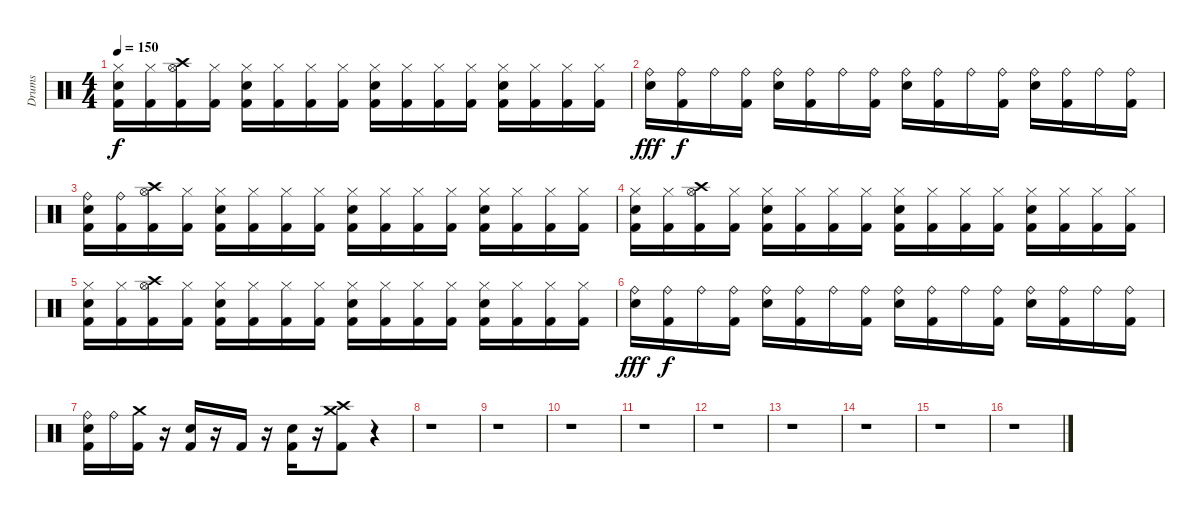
\track ("Drums" "Drums") {instrument percussion}
\staff {score}
\articulation defaults
\ts (4 4)
\tempo 150
\clef neutral
\ks c
("Hi-Hat (closed)" "Snare (hit) 2" "Kick (hit) 2").16{dy f} ("Hi-Hat (closed)" "Kick (hit) 2").16 ("Hi-Hat (open)" "Kick (hit) 2" "Crash high (hit)").16 ("Hi-Hat (closed)" "Kick (hit) 2").16 ("Hi-Hat (closed)" "Snare (hit) 2" "Kick (hit) 2").16 ("Hi-Hat (closed)" "Kick (hit) 2").16 ("Hi-Hat (closed)" "Kick (hit) 2").16 ("Hi-Hat (closed)" "Kick (hit) 2").16 ("Hi-Hat (closed)" "Snare (hit) 2" "Kick (hit) 2").16 ("Hi-Hat (closed)" "Kick (hit) 2").16 ("Hi-Hat (closed)" "Kick (hit) 2").16 ("Hi-Hat (closed)" "Kick (hit) 2").16 ("Hi-Hat (closed)" "Snare (hit) 2" "Kick (hit) 2").16 ("Hi-Hat (closed)" "Kick (hit) 2").16 ("Hi-Hat (closed)" "Kick (hit) 2").16 ("Hi-Hat (closed)" "Kick (hit) 2").16 |
("Ride (bell)" "Snare (hit) 2").16{dy fff} ("Ride (bell)" "Kick (hit) 2").16{dy f} "Ride (bell)".16 ("Ride (bell)" "Kick (hit) 2").16 ("Ride (bell)" "Snare (hit) 2").16 ("Ride (bell)" "Kick (hit) 2").16 "Ride (bell)".16 ("Ride (bell)" "Kick (hit) 2").16 ("Ride (bell)" "Snare (hit) 2").16 ("Ride (bell)" "Kick (hit) 2").16 "Ride (bell)".16 ("Ride (bell)" "Kick (hit) 2").16 ("Ride (bell)" "Snare (hit) 2").16 ("Ride (bell)" "Kick (hit) 2").16 "Ride (bell)".16 ("Ride (bell)" "Kick (hit) 2").16 |
("Ride (bell)" "Snare (hit) 2" "Kick (hit) 2").16 ("Ride (bell)" "Kick (hit) 2").16 ("Hi-Hat (open)" "Kick (hit) 2" "Crash high (hit)").16 ("Hi-Hat (closed)" "Kick (hit) 2").16 ("Hi-Hat (closed)" "Snare (hit) 2" "Kick (hit) 2").16 ("Hi-Hat (closed)" "Kick (hit) 2").16 ("Hi-Hat (closed)" "Kick (hit) 2").16 ("Hi-Hat (closed)" "Kick (hit) 2").16 ("Hi-Hat (closed)" "Snare (hit) 2" "Kick (hit) 2").16 ("Hi-Hat (closed)" "Kick (hit) 2").16 ("Hi-Hat (closed)" "Kick (hit) 2").16 ("Hi-Hat (closed)" "Kick (hit) 2").16 ("Hi-Hat (closed)" "Snare (hit) 2" "Kick (hit) 2").16 ("Hi-Hat (closed)" "Kick (hit) 2").16 ("Hi-Hat (closed)" "Kick (hit) 2").16 ("Hi-Hat (closed)" "Kick (hit) 2").16 |
("Hi-Hat (closed)" "Snare (hit) 2" "Kick (hit) 2").16 ("Hi-Hat (closed)" "Kick (hit) 2").16 ("Hi-Hat (open)" "Kick (hit) 2" "Crash high (hit)").16 ("Hi-Hat (closed)" "Kick (hit) 2").16 ("Hi-Hat (closed)" "Snare (hit) 2" "Kick (hit) 2").16 ("Hi-Hat (closed)" "Kick (hit) 2").16 ("Hi-Hat (closed)" "Kick (hit) 2").16 ("Hi-Hat (closed)" "Kick (hit) 2").16 ("Hi-Hat (closed)" "Snare (hit) 2" "Kick (hit) 2").16 ("Hi-Hat (closed)" "Kick (hit) 2").16 ("Hi-Hat (closed)" "Kick (hit) 2").16 ("Hi-Hat (closed)" "Kick (hit) 2").16 ("Hi-Hat (closed)" "Snare (hit) 2" "Kick (hit) 2").16 ("Hi-Hat (closed)" "Kick (hit) 2").16 ("Hi-Hat (closed)" "Kick (hit) 2").16 ("Hi-Hat (closed)" "Kick (hit) 2").16 |
("Hi-Hat (closed)" "Snare (hit) 2" "Kick (hit) 2").16 ("Hi-Hat (closed)" "Kick (hit) 2").16 ("Hi-Hat (open)" "Kick (hit) 2" "Crash high (hit)").16 ("Hi-Hat (closed)" "Kick (hit) 2").16 ("Hi-Hat (closed)" "Snare (hit) 2" "Kick (hit) 2").16 ("Hi-Hat (closed)" "Kick (hit) 2").16 ("Hi-Hat (closed)" "Kick (hit) 2").16 ("Hi-Hat (closed)" "Kick (hit) 2").16 ("Hi-Hat (closed)" "Snare (hit) 2" "Kick (hit) 2").16 ("Hi-Hat (closed)" "Kick (hit) 2").16 ("Hi-Hat (closed)" "Kick (hit) 2").16 ("Hi-Hat (closed)" "Kick (hit) 2").16 ("Hi-Hat (closed)" "Snare (hit) 2" "Kick (hit) 2").16 ("Hi-Hat (closed)" "Kick (hit) 2").16 ("Hi-Hat (closed)" "Kick (hit) 2").16 ("Hi-Hat (closed)" "Kick (hit) 2").16 |
("Ride (bell)" "Snare (hit) 2").16{dy fff} ("Ride (bell)" "Kick (hit) 2").16{dy f} "Ride (bell)".16 ("Ride (bell)" "Kick (hit) 2").16 ("Ride (bell)" "Snare (hit) 2").16 ("Ride (bell)" "Kick (hit) 2").16 "Ride (bell)".16 ("Ride (bell)" "Kick (hit) 2").16 ("Ride (bell)" "Snare (hit) 2").16 ("Ride (bell)" "Kick (hit) 2").16 "Ride (bell)".16 ("Ride (bell)" "Kick (hit) 2").16 ("Ride (bell)" "Snare (hit) 2").16 ("Ride (bell)" "Kick (hit) 2").16 "Ride (bell)".16 ("Ride (bell)" "Kick (hit) 2").16 |
("Ride (bell)" "Snare (hit) 2" "Kick (hit) 2").16 "Ride (bell)".16 ("Kick (hit) 2" "Crash medium (hit)").16 r.16 ("Snare (hit) 2" "Kick (hit) 2").16 r.16 "Kick (hit) 2".16 r.16 ("Snare (hit) 2" "Kick (hit) 2").16 r.16 ("Kick (hit) 2" "Crash high (hit)" "Crash medium (hit)").8 r.4 |
r.1 |
r.1 |
r.1 |
r.1 |
r.1 |
r.1 |
r.1 |
r.1 |
r.1
